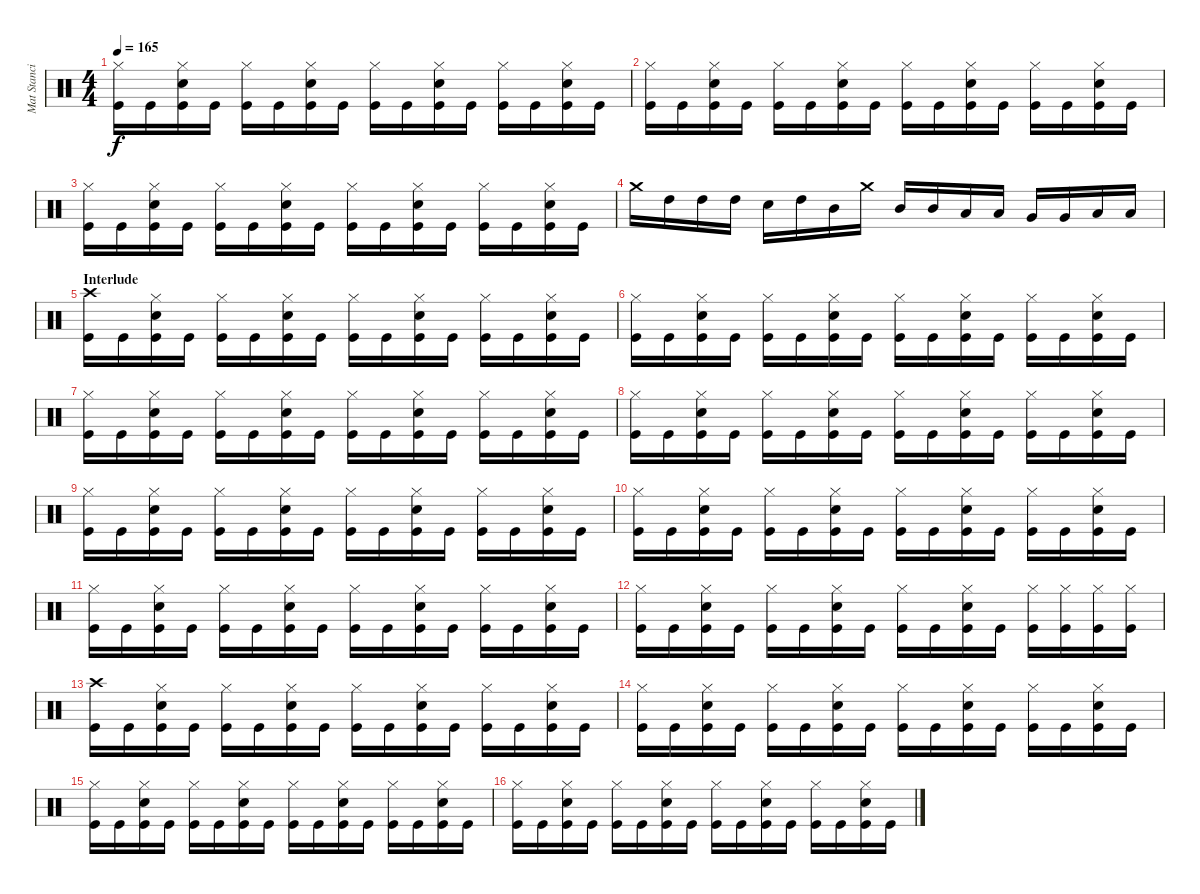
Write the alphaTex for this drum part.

\track ("Mat Stancioiu (Drums)" "Mat Stanci") {instrument percussion}
\staff {score}
\articulation defaults
\ts (4 4)
\tempo 165
\clef neutral
\ks c
("Hi-Hat (closed)" "Kick (hit)").16{dy f} "Kick (hit)".16 ("Hi-Hat (closed)" "Electric Snare (hit)" "Kick (hit)").16 "Kick (hit)".16 ("Hi-Hat (closed)" "Kick (hit)").16 "Kick (hit)".16 ("Hi-Hat (closed)" "Electric Snare (hit)" "Kick (hit)").16 "Kick (hit)".16 ("Hi-Hat (closed)" "Kick (hit)").16 "Kick (hit)".16 ("Hi-Hat (closed)" "Electric Snare (hit)" "Kick (hit)").16 "Kick (hit)".16 ("Hi-Hat (closed)" "Kick (hit)").16 "Kick (hit)".16 ("Hi-Hat (closed)" "Electric Snare (hit)" "Kick (hit)").16 "Kick (hit)".16 |
("Hi-Hat (closed)" "Kick (hit)").16 "Kick (hit)".16 ("Hi-Hat (closed)" "Electric Snare (hit)" "Kick (hit)").16 "Kick (hit)".16 ("Hi-Hat (closed)" "Kick (hit)").16 "Kick (hit)".16 ("Hi-Hat (closed)" "Electric Snare (hit)" "Kick (hit)").16 "Kick (hit)".16 ("Hi-Hat (closed)" "Kick (hit)").16 "Kick (hit)".16 ("Hi-Hat (closed)" "Electric Snare (hit)" "Kick (hit)").16 "Kick (hit)".16 ("Hi-Hat (closed)" "Kick (hit)").16 "Kick (hit)".16 ("Hi-Hat (closed)" "Electric Snare (hit)" "Kick (hit)").16 "Kick (hit)".16 |
("Hi-Hat (closed)" "Kick (hit)").16 "Kick (hit)".16 ("Hi-Hat (closed)" "Electric Snare (hit)" "Kick (hit)").16 "Kick (hit)".16 ("Hi-Hat (closed)" "Kick (hit)").16 "Kick (hit)".16 ("Hi-Hat (closed)" "Electric Snare (hit)" "Kick (hit)").16 "Kick (hit)".16 ("Hi-Hat (closed)" "Kick (hit)").16 "Kick (hit)".16 ("Hi-Hat (closed)" "Electric Snare (hit)" "Kick (hit)").16 "Kick (hit)".16 ("Hi-Hat (closed)" "Kick (hit)").16 "Kick (hit)".16 ("Hi-Hat (closed)" "Electric Snare (hit)" "Kick (hit)").16 "Kick (hit)".16 |
"Crash medium (hit)".16 "High Tom (hit)".16 "High Tom (hit)".16 "High Tom (hit)".16 "Electric Snare (hit)".16 "High Tom (hit)".16 "Mid Tom (hit)".16 "Crash medium (hit)".16 "Mid Tom (hit)".16 "Mid Tom (hit)".16 "Low Tom (hit)".16 "Low Tom (hit)".16 "Very Low Tom (hit)".16 "Very Low Tom (hit)".16 "Low Floor Tom (hit)".16 "Low Floor Tom (hit)".16 |
\section ("" "Interlude")
("Crash high (hit)" "Kick (hit)").16 "Kick (hit)".16 ("Hi-Hat (closed)" "Electric Snare (hit)" "Kick (hit)").16 "Kick (hit)".16 ("Hi-Hat (closed)" "Kick (hit)").16 "Kick (hit)".16 ("Hi-Hat (closed)" "Electric Snare (hit)" "Kick (hit)").16 "Kick (hit)".16 ("Hi-Hat (closed)" "Kick (hit)").16 "Kick (hit)".16 ("Hi-Hat (closed)" "Electric Snare (hit)" "Kick (hit)").16 "Kick (hit)".16 ("Hi-Hat (closed)" "Kick (hit)").16 "Kick (hit)".16 ("Hi-Hat (closed)" "Electric Snare (hit)" "Kick (hit)").16 "Kick (hit)".16 |
("Hi-Hat (closed)" "Kick (hit)").16 "Kick (hit)".16 ("Hi-Hat (closed)" "Electric Snare (hit)" "Kick (hit)").16 "Kick (hit)".16 ("Hi-Hat (closed)" "Kick (hit)").16 "Kick (hit)".16 ("Hi-Hat (closed)" "Electric Snare (hit)" "Kick (hit)").16 "Kick (hit)".16 ("Hi-Hat (closed)" "Kick (hit)").16 "Kick (hit)".16 ("Hi-Hat (closed)" "Electric Snare (hit)" "Kick (hit)").16 "Kick (hit)".16 ("Hi-Hat (closed)" "Kick (hit)").16 "Kick (hit)".16 ("Hi-Hat (closed)" "Electric Snare (hit)" "Kick (hit)").16 "Kick (hit)".16 |
("Hi-Hat (closed)" "Kick (hit)").16 "Kick (hit)".16 ("Hi-Hat (closed)" "Electric Snare (hit)" "Kick (hit)").16 "Kick (hit)".16 ("Hi-Hat (closed)" "Kick (hit)").16 "Kick (hit)".16 ("Hi-Hat (closed)" "Electric Snare (hit)" "Kick (hit)").16 "Kick (hit)".16 ("Hi-Hat (closed)" "Kick (hit)").16 "Kick (hit)".16 ("Hi-Hat (closed)" "Electric Snare (hit)" "Kick (hit)").16 "Kick (hit)".16 ("Hi-Hat (closed)" "Kick (hit)").16 "Kick (hit)".16 ("Hi-Hat (closed)" "Electric Snare (hit)" "Kick (hit)").16 "Kick (hit)".16 |
("Hi-Hat (closed)" "Kick (hit)").16 "Kick (hit)".16 ("Hi-Hat (closed)" "Electric Snare (hit)" "Kick (hit)").16 "Kick (hit)".16 ("Hi-Hat (closed)" "Kick (hit)").16 "Kick (hit)".16 ("Hi-Hat (closed)" "Electric Snare (hit)" "Kick (hit)").16 "Kick (hit)".16 ("Hi-Hat (closed)" "Kick (hit)").16 "Kick (hit)".16 ("Hi-Hat (closed)" "Electric Snare (hit)" "Kick (hit)").16 "Kick (hit)".16 ("Hi-Hat (closed)" "Kick (hit)").16 "Kick (hit)".16 ("Hi-Hat (closed)" "Electric Snare (hit)" "Kick (hit)").16 "Kick (hit)".16 |
("Hi-Hat (closed)" "Kick (hit)").16 "Kick (hit)".16 ("Hi-Hat (closed)" "Electric Snare (hit)" "Kick (hit)").16 "Kick (hit)".16 ("Hi-Hat (closed)" "Kick (hit)").16 "Kick (hit)".16 ("Hi-Hat (closed)" "Electric Snare (hit)" "Kick (hit)").16 "Kick (hit)".16 ("Hi-Hat (closed)" "Kick (hit)").16 "Kick (hit)".16 ("Hi-Hat (closed)" "Electric Snare (hit)" "Kick (hit)").16 "Kick (hit)".16 ("Hi-Hat (closed)" "Kick (hit)").16 "Kick (hit)".16 ("Hi-Hat (closed)" "Electric Snare (hit)" "Kick (hit)").16 "Kick (hit)".16 |
("Hi-Hat (closed)" "Kick (hit)").16 "Kick (hit)".16 ("Hi-Hat (closed)" "Electric Snare (hit)" "Kick (hit)").16 "Kick (hit)".16 ("Hi-Hat (closed)" "Kick (hit)").16 "Kick (hit)".16 ("Hi-Hat (closed)" "Electric Snare (hit)" "Kick (hit)").16 "Kick (hit)".16 ("Hi-Hat (closed)" "Kick (hit)").16 "Kick (hit)".16 ("Hi-Hat (closed)" "Electric Snare (hit)" "Kick (hit)").16 "Kick (hit)".16 ("Hi-Hat (closed)" "Kick (hit)").16 "Kick (hit)".16 ("Hi-Hat (closed)" "Electric Snare (hit)" "Kick (hit)").16 "Kick (hit)".16 |
("Hi-Hat (closed)" "Kick (hit)").16 "Kick (hit)".16 ("Hi-Hat (closed)" "Electric Snare (hit)" "Kick (hit)").16 "Kick (hit)".16 ("Hi-Hat (closed)" "Kick (hit)").16 "Kick (hit)".16 ("Hi-Hat (closed)" "Electric Snare (hit)" "Kick (hit)").16 "Kick (hit)".16 ("Hi-Hat (closed)" "Kick (hit)").16 "Kick (hit)".16 ("Hi-Hat (closed)" "Electric Snare (hit)" "Kick (hit)").16 "Kick (hit)".16 ("Hi-Hat (closed)" "Kick (hit)").16 "Kick (hit)".16 ("Hi-Hat (closed)" "Electric Snare (hit)" "Kick (hit)").16 "Kick (hit)".16 |
("Hi-Hat (closed)" "Kick (hit)").16 "Kick (hit)".16 ("Hi-Hat (closed)" "Electric Snare (hit)" "Kick (hit)").16 "Kick (hit)".16 ("Hi-Hat (closed)" "Kick (hit)").16 "Kick (hit)".16 ("Hi-Hat (closed)" "Electric Snare (hit)" "Kick (hit)").16 "Kick (hit)".16 ("Hi-Hat (closed)" "Kick (hit)").16 "Kick (hit)".16 ("Hi-Hat (closed)" "Electric Snare (hit)" "Kick (hit)").16 "Kick (hit)".16 ("Hi-Hat (closed)" "Kick (hit)").16 ("Hi-Hat (closed)" "Kick (hit)").16 ("Hi-Hat (closed)" "Kick (hit)").16 ("Hi-Hat (closed)" "Kick (hit)").16 |
("Crash high (hit)" "Kick (hit)").16 "Kick (hit)".16 ("Hi-Hat (closed)" "Electric Snare (hit)" "Kick (hit)").16 "Kick (hit)".16 ("Hi-Hat (closed)" "Kick (hit)").16 "Kick (hit)".16 ("Hi-Hat (closed)" "Electric Snare (hit)" "Kick (hit)").16 "Kick (hit)".16 ("Hi-Hat (closed)" "Kick (hit)").16 "Kick (hit)".16 ("Hi-Hat (closed)" "Electric Snare (hit)" "Kick (hit)").16 "Kick (hit)".16 ("Hi-Hat (closed)" "Kick (hit)").16 "Kick (hit)".16 ("Hi-Hat (closed)" "Electric Snare (hit)" "Kick (hit)").16 "Kick (hit)".16 |
("Hi-Hat (closed)" "Kick (hit)").16 "Kick (hit)".16 ("Hi-Hat (closed)" "Electric Snare (hit)" "Kick (hit)").16 "Kick (hit)".16 ("Hi-Hat (closed)" "Kick (hit)").16 "Kick (hit)".16 ("Hi-Hat (closed)" "Electric Snare (hit)" "Kick (hit)").16 "Kick (hit)".16 ("Hi-Hat (closed)" "Kick (hit)").16 "Kick (hit)".16 ("Hi-Hat (closed)" "Electric Snare (hit)" "Kick (hit)").16 "Kick (hit)".16 ("Hi-Hat (closed)" "Kick (hit)").16 "Kick (hit)".16 ("Hi-Hat (closed)" "Electric Snare (hit)" "Kick (hit)").16 "Kick (hit)".16 |
("Hi-Hat (closed)" "Kick (hit)").16 "Kick (hit)".16 ("Hi-Hat (closed)" "Electric Snare (hit)" "Kick (hit)").16 "Kick (hit)".16 ("Hi-Hat (closed)" "Kick (hit)").16 "Kick (hit)".16 ("Hi-Hat (closed)" "Electric Snare (hit)" "Kick (hit)").16 "Kick (hit)".16 ("Hi-Hat (closed)" "Kick (hit)").16 "Kick (hit)".16 ("Hi-Hat (closed)" "Electric Snare (hit)" "Kick (hit)").16 "Kick (hit)".16 ("Hi-Hat (closed)" "Kick (hit)").16 "Kick (hit)".16 ("Hi-Hat (closed)" "Electric Snare (hit)" "Kick (hit)").16 "Kick (hit)".16 |
("Hi-Hat (closed)" "Kick (hit)").16 "Kick (hit)".16 ("Hi-Hat (closed)" "Electric Snare (hit)" "Kick (hit)").16 "Kick (hit)".16 ("Hi-Hat (closed)" "Kick (hit)").16 "Kick (hit)".16 ("Hi-Hat (closed)" "Electric Snare (hit)" "Kick (hit)").16 "Kick (hit)".16 ("Hi-Hat (closed)" "Kick (hit)").16 "Kick (hit)".16 ("Hi-Hat (closed)" "Electric Snare (hit)" "Kick (hit)").16 "Kick (hit)".16 ("Hi-Hat (closed)" "Kick (hit)").16 "Kick (hit)".16 ("Hi-Hat (closed)" "Electric Snare (hit)" "Kick (hit)").16 "Kick (hit)".16
